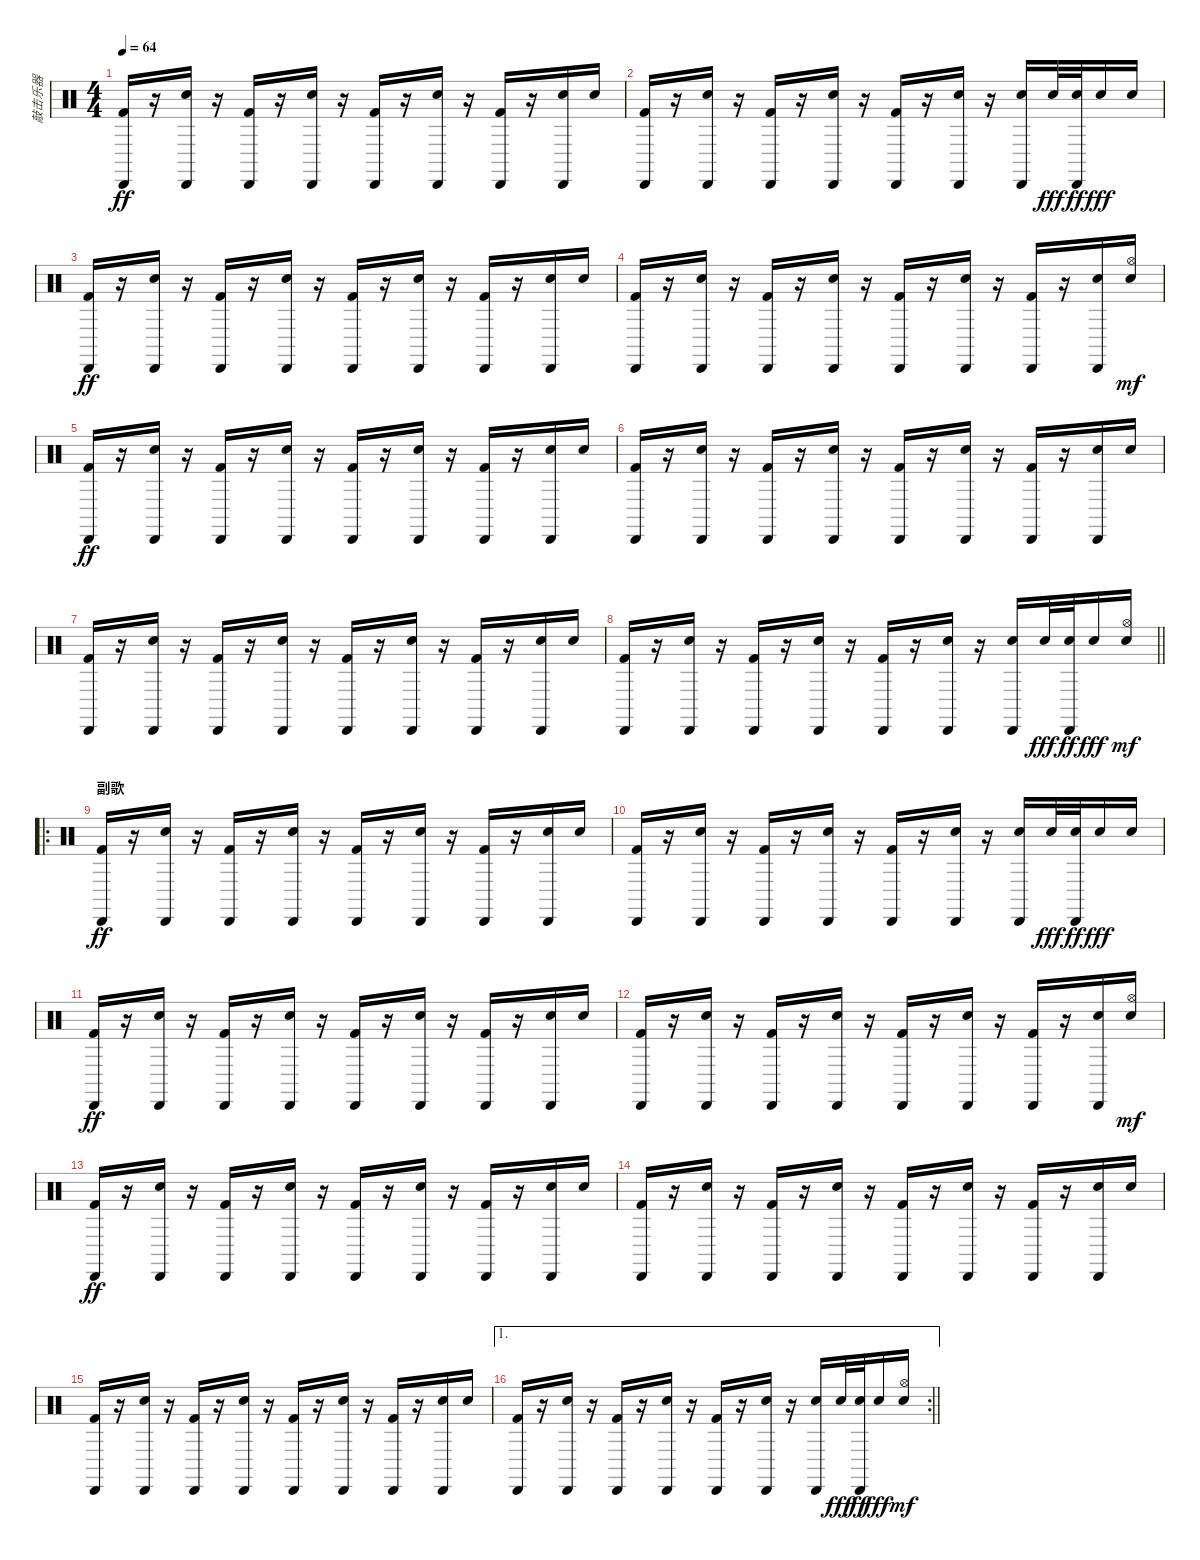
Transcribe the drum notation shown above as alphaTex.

\track ("敲击乐器" "敲击乐器") {instrument percussion}
\staff {score}
\articulation defaults
\ts (4 4)
\section ("" "")
\tempo 64
\clef neutral
\ks c
("Cabasa (hit)" "Kick (hit) 2").16{dy ff} r.16 ("Cabasa (hit)" "Snare (hit) 2").16 r.16 ("Cabasa (hit)" "Kick (hit) 2").16 r.16 ("Cabasa (hit)" "Snare (hit) 2").16 r.16 ("Cabasa (hit)" "Kick (hit) 2").16 r.16 ("Cabasa (hit)" "Snare (hit) 2").16 r.16 ("Cabasa (hit)" "Kick (hit) 2").16 r.16 ("Cabasa (hit)" "Snare (hit) 2").16 "Electric Snare (hit)".16 |
("Cabasa (hit)" "Kick (hit) 2").16 r.16 ("Cabasa (hit)" "Snare (hit) 2").16 r.16 ("Cabasa (hit)" "Kick (hit) 2").16 r.16 ("Cabasa (hit)" "Snare (hit) 2").16 r.16 ("Cabasa (hit)" "Kick (hit) 2").16 r.16 ("Cabasa (hit)" "Snare (hit) 2").16 r.16 ("Cabasa (hit)" "Snare (hit) 2").16 "Snare (hit) 2".32{dy fff} ("Cabasa (hit)" "Snare (hit) 2").32{dy ff} "Electric Snare (hit)".16{dy fff} "Snare (hit) 2".16 |
("Cabasa (hit)" "Kick (hit) 2").16{dy ff} r.16 ("Cabasa (hit)" "Snare (hit) 2").16 r.16 ("Cabasa (hit)" "Kick (hit) 2").16 r.16 ("Cabasa (hit)" "Snare (hit) 2").16 r.16 ("Cabasa (hit)" "Kick (hit) 2").16 r.16 ("Cabasa (hit)" "Snare (hit) 2").16 r.16 ("Cabasa (hit)" "Kick (hit) 2").16 r.16 ("Cabasa (hit)" "Snare (hit) 2").16 "Electric Snare (hit)".16 |
("Cabasa (hit)" "Kick (hit) 2").16 r.16 ("Cabasa (hit)" "Snare (hit) 2").16 r.16 ("Cabasa (hit)" "Kick (hit) 2").16 r.16 ("Cabasa (hit)" "Snare (hit) 2").16 r.16 ("Cabasa (hit)" "Kick (hit) 2").16 r.16 ("Cabasa (hit)" "Snare (hit) 2").16 r.16 ("Cabasa (hit)" "Kick (hit) 2").16 r.16 ("Cabasa (hit)" "Snare (hit) 2").16 ("Electric Snare (hit)" "Hi-Hat (open)").16{dy mf} |
("Cabasa (hit)" "Kick (hit) 2").16{dy ff} r.16 ("Cabasa (hit)" "Snare (hit) 2").16 r.16 ("Cabasa (hit)" "Kick (hit) 2").16 r.16 ("Cabasa (hit)" "Snare (hit) 2").16 r.16 ("Cabasa (hit)" "Kick (hit) 2").16 r.16 ("Cabasa (hit)" "Snare (hit) 2").16 r.16 ("Cabasa (hit)" "Kick (hit) 2").16 r.16 ("Cabasa (hit)" "Snare (hit) 2").16 "Electric Snare (hit)".16 |
("Cabasa (hit)" "Kick (hit) 2").16 r.16 ("Cabasa (hit)" "Snare (hit) 2").16 r.16 ("Cabasa (hit)" "Kick (hit) 2").16 r.16 ("Cabasa (hit)" "Snare (hit) 2").16 r.16 ("Cabasa (hit)" "Kick (hit) 2").16 r.16 ("Cabasa (hit)" "Snare (hit) 2").16 r.16 ("Cabasa (hit)" "Kick (hit) 2").16 r.16 ("Cabasa (hit)" "Snare (hit) 2").16 "Electric Snare (hit)".16 |
("Cabasa (hit)" "Kick (hit) 2").16 r.16 ("Cabasa (hit)" "Snare (hit) 2").16 r.16 ("Cabasa (hit)" "Kick (hit) 2").16 r.16 ("Cabasa (hit)" "Snare (hit) 2").16 r.16 ("Cabasa (hit)" "Kick (hit) 2").16 r.16 ("Cabasa (hit)" "Snare (hit) 2").16 r.16 ("Cabasa (hit)" "Kick (hit) 2").16 r.16 ("Cabasa (hit)" "Snare (hit) 2").16 "Electric Snare (hit)".16 |
\barLineRight lightlight
("Cabasa (hit)" "Kick (hit) 2").16 r.16 ("Cabasa (hit)" "Snare (hit) 2").16 r.16 ("Cabasa (hit)" "Kick (hit) 2").16 r.16 ("Cabasa (hit)" "Snare (hit) 2").16 r.16 ("Cabasa (hit)" "Kick (hit) 2").16 r.16 ("Cabasa (hit)" "Snare (hit) 2").16 r.16 ("Cabasa (hit)" "Snare (hit) 2").16 "Snare (hit) 2".32{dy fff} ("Cabasa (hit)" "Snare (hit) 2").32{dy ff} "Electric Snare (hit)".16{dy fff} ("Snare (hit) 2" "Hi-Hat (open)").16{dy mf} |
\ro
\section ("" "副歌")
("Cabasa (hit)" "Kick (hit) 2").16{dy ff} r.16 ("Cabasa (hit)" "Snare (hit) 2").16 r.16 ("Cabasa (hit)" "Kick (hit) 2").16 r.16 ("Cabasa (hit)" "Snare (hit) 2").16 r.16 ("Cabasa (hit)" "Kick (hit) 2").16 r.16 ("Cabasa (hit)" "Snare (hit) 2").16 r.16 ("Cabasa (hit)" "Kick (hit) 2").16 r.16 ("Cabasa (hit)" "Snare (hit) 2").16 "Electric Snare (hit)".16 |
("Cabasa (hit)" "Kick (hit) 2").16 r.16 ("Cabasa (hit)" "Snare (hit) 2").16 r.16 ("Cabasa (hit)" "Kick (hit) 2").16 r.16 ("Cabasa (hit)" "Snare (hit) 2").16 r.16 ("Cabasa (hit)" "Kick (hit) 2").16 r.16 ("Cabasa (hit)" "Snare (hit) 2").16 r.16 ("Cabasa (hit)" "Snare (hit) 2").16 "Snare (hit) 2".32{dy fff} ("Cabasa (hit)" "Snare (hit) 2").32{dy ff} "Electric Snare (hit)".16{dy fff} "Snare (hit) 2".16 |
("Cabasa (hit)" "Kick (hit) 2").16{dy ff} r.16 ("Cabasa (hit)" "Snare (hit) 2").16 r.16 ("Cabasa (hit)" "Kick (hit) 2").16 r.16 ("Cabasa (hit)" "Snare (hit) 2").16 r.16 ("Cabasa (hit)" "Kick (hit) 2").16 r.16 ("Cabasa (hit)" "Snare (hit) 2").16 r.16 ("Cabasa (hit)" "Kick (hit) 2").16 r.16 ("Cabasa (hit)" "Snare (hit) 2").16 "Electric Snare (hit)".16 |
("Cabasa (hit)" "Kick (hit) 2").16 r.16 ("Cabasa (hit)" "Snare (hit) 2").16 r.16 ("Cabasa (hit)" "Kick (hit) 2").16 r.16 ("Cabasa (hit)" "Snare (hit) 2").16 r.16 ("Cabasa (hit)" "Kick (hit) 2").16 r.16 ("Cabasa (hit)" "Snare (hit) 2").16 r.16 ("Cabasa (hit)" "Kick (hit) 2").16 r.16 ("Cabasa (hit)" "Snare (hit) 2").16 ("Electric Snare (hit)" "Hi-Hat (open)").16{dy mf} |
("Cabasa (hit)" "Kick (hit) 2").16{dy ff} r.16 ("Cabasa (hit)" "Snare (hit) 2").16 r.16 ("Cabasa (hit)" "Kick (hit) 2").16 r.16 ("Cabasa (hit)" "Snare (hit) 2").16 r.16 ("Cabasa (hit)" "Kick (hit) 2").16 r.16 ("Cabasa (hit)" "Snare (hit) 2").16 r.16 ("Cabasa (hit)" "Kick (hit) 2").16 r.16 ("Cabasa (hit)" "Snare (hit) 2").16 "Electric Snare (hit)".16 |
("Cabasa (hit)" "Kick (hit) 2").16 r.16 ("Cabasa (hit)" "Snare (hit) 2").16 r.16 ("Cabasa (hit)" "Kick (hit) 2").16 r.16 ("Cabasa (hit)" "Snare (hit) 2").16 r.16 ("Cabasa (hit)" "Kick (hit) 2").16 r.16 ("Cabasa (hit)" "Snare (hit) 2").16 r.16 ("Cabasa (hit)" "Kick (hit) 2").16 r.16 ("Cabasa (hit)" "Snare (hit) 2").16 "Electric Snare (hit)".16 |
("Cabasa (hit)" "Kick (hit) 2").16 r.16 ("Cabasa (hit)" "Snare (hit) 2").16 r.16 ("Cabasa (hit)" "Kick (hit) 2").16 r.16 ("Cabasa (hit)" "Snare (hit) 2").16 r.16 ("Cabasa (hit)" "Kick (hit) 2").16 r.16 ("Cabasa (hit)" "Snare (hit) 2").16 r.16 ("Cabasa (hit)" "Kick (hit) 2").16 r.16 ("Cabasa (hit)" "Snare (hit) 2").16 "Electric Snare (hit)".16 |
\ae 1
\rc 2
\barLineRight lightlight
("Cabasa (hit)" "Kick (hit) 2").16 r.16 ("Cabasa (hit)" "Snare (hit) 2").16 r.16 ("Cabasa (hit)" "Kick (hit) 2").16 r.16 ("Cabasa (hit)" "Snare (hit) 2").16 r.16 ("Cabasa (hit)" "Kick (hit) 2").16 r.16 ("Cabasa (hit)" "Snare (hit) 2").16 r.16 ("Cabasa (hit)" "Snare (hit) 2").16 "Snare (hit) 2".32{dy fff} ("Cabasa (hit)" "Snare (hit) 2").32{dy ff} "Electric Snare (hit)".16{dy fff} ("Snare (hit) 2" "Hi-Hat (open)").16{dy mf}
